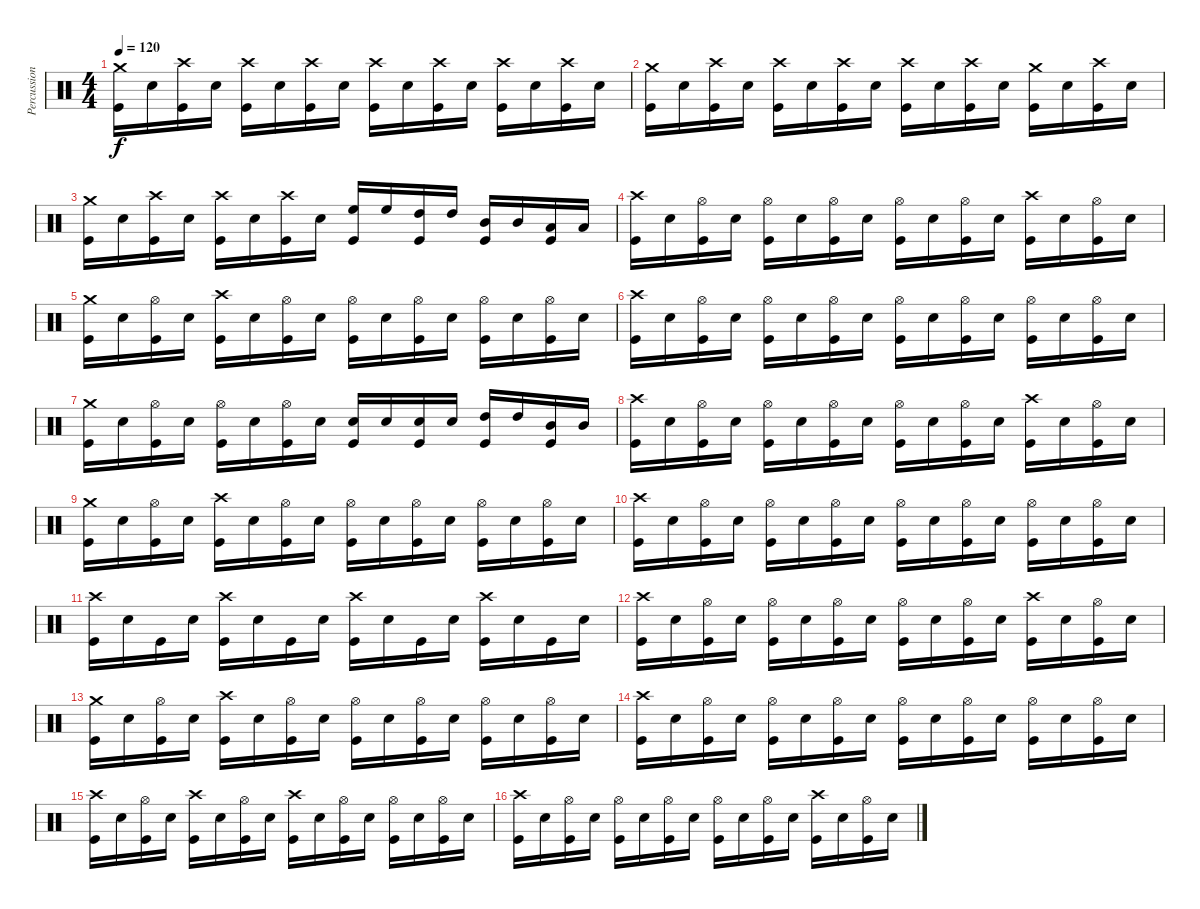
\track ("Percussioni" "Percussion") {instrument percussion}
\staff {score}
\articulation defaults
\ts (4 4)
\tempo 120
\clef neutral
\ks c
("Crash medium (hit)" "Kick (hit)").16{dy f} "Electric Snare (hit)".16 ("Crash high (hit)" "Kick (hit)").16 "Electric Snare (hit)".16 ("Crash high (hit)" "Kick (hit)").16 "Electric Snare (hit)".16 ("Crash high (hit)" "Kick (hit)").16 "Electric Snare (hit)".16 ("Crash high (hit)" "Kick (hit)").16 "Electric Snare (hit)".16 ("Crash high (hit)" "Kick (hit)").16 "Electric Snare (hit)".16 ("Crash high (hit)" "Kick (hit)").16 "Electric Snare (hit)".16 ("Crash high (hit)" "Kick (hit)").16 "Electric Snare (hit)".16 |
("Crash medium (hit)" "Kick (hit)").16 "Electric Snare (hit)".16 ("Crash high (hit)" "Kick (hit)").16 "Electric Snare (hit)".16 ("Crash high (hit)" "Kick (hit)").16 "Electric Snare (hit)".16 ("Crash high (hit)" "Kick (hit)").16 "Electric Snare (hit)".16 ("Crash high (hit)" "Kick (hit)").16 "Electric Snare (hit)".16 ("Crash high (hit)" "Kick (hit)").16 "Electric Snare (hit)".16 ("Crash medium (hit)" "Kick (hit)").16 "Electric Snare (hit)".16 ("Crash high (hit)" "Kick (hit)").16 "Electric Snare (hit)".16 |
("Crash medium (hit)" "Kick (hit)").16 "Electric Snare (hit)".16 ("Crash high (hit)" "Kick (hit)").16 "Electric Snare (hit)".16 ("Crash high (hit)" "Kick (hit)").16 "Electric Snare (hit)".16 ("Crash high (hit)" "Kick (hit)").16 "Electric Snare (hit)".16 ("High Floor Tom (hit)" "Kick (hit)").16 "High Floor Tom (hit)".16 ("High Tom (hit)" "Kick (hit)").16 "High Tom (hit)".16 ("Mid Tom (hit)" "Kick (hit)").16 "Mid Tom (hit)".16 ("Low Tom (hit)" "Kick (hit)").16 "Low Tom (hit)".16 |
("Crash high (hit)" "Kick (hit)").16 "Electric Snare (hit)".16 ("Hi-Hat (open)" "Kick (hit)").16 "Electric Snare (hit)".16 ("Hi-Hat (open)" "Kick (hit)").16 "Electric Snare (hit)".16 ("Hi-Hat (open)" "Kick (hit)").16 "Electric Snare (hit)".16 ("Hi-Hat (open)" "Kick (hit)").16 "Electric Snare (hit)".16 ("Hi-Hat (open)" "Kick (hit)").16 "Electric Snare (hit)".16 ("Crash high (hit)" "Kick (hit)").16 "Electric Snare (hit)".16 ("Hi-Hat (open)" "Kick (hit)").16 "Electric Snare (hit)".16 |
("Crash medium (hit)" "Kick (hit)").16 "Electric Snare (hit)".16 ("Hi-Hat (open)" "Kick (hit)").16 "Electric Snare (hit)".16 ("Crash high (hit)" "Kick (hit)").16 "Electric Snare (hit)".16 ("Hi-Hat (open)" "Kick (hit)").16 "Electric Snare (hit)".16 ("Hi-Hat (open)" "Kick (hit)").16 "Electric Snare (hit)".16 ("Hi-Hat (open)" "Kick (hit)").16 "Electric Snare (hit)".16 ("Hi-Hat (open)" "Kick (hit)").16 "Electric Snare (hit)".16 ("Hi-Hat (open)" "Kick (hit)").16 "Electric Snare (hit)".16 |
("Crash high (hit)" "Kick (hit)").16 "Electric Snare (hit)".16 ("Hi-Hat (open)" "Kick (hit)").16 "Electric Snare (hit)".16 ("Hi-Hat (open)" "Kick (hit)").16 "Electric Snare (hit)".16 ("Hi-Hat (open)" "Kick (hit)").16 "Electric Snare (hit)".16 ("Hi-Hat (open)" "Kick (hit)").16 "Electric Snare (hit)".16 ("Hi-Hat (open)" "Kick (hit)").16 "Electric Snare (hit)".16 ("Hi-Hat (open)" "Kick (hit)").16 "Electric Snare (hit)".16 ("Hi-Hat (open)" "Kick (hit)").16 "Electric Snare (hit)".16 |
("Crash medium (hit)" "Kick (hit)").16 "Electric Snare (hit)".16 ("Hi-Hat (open)" "Kick (hit)").16 "Electric Snare (hit)".16 ("Hi-Hat (open)" "Kick (hit)").16 "Electric Snare (hit)".16 ("Hi-Hat (open)" "Kick (hit)").16 "Electric Snare (hit)".16 ("Electric Snare (hit)" "Kick (hit)").16 "Electric Snare (hit)".16 ("Electric Snare (hit)" "Kick (hit)").16 "Electric Snare (hit)".16 ("High Tom (hit)" "Kick (hit)").16 "High Tom (hit)".16 ("Mid Tom (hit)" "Kick (hit)").16 "Mid Tom (hit)".16 |
("Crash high (hit)" "Kick (hit)").16 "Electric Snare (hit)".16 ("Hi-Hat (open)" "Kick (hit)").16 "Electric Snare (hit)".16 ("Hi-Hat (open)" "Kick (hit)").16 "Electric Snare (hit)".16 ("Hi-Hat (open)" "Kick (hit)").16 "Electric Snare (hit)".16 ("Hi-Hat (open)" "Kick (hit)").16 "Electric Snare (hit)".16 ("Hi-Hat (open)" "Kick (hit)").16 "Electric Snare (hit)".16 ("Crash high (hit)" "Kick (hit)").16 "Electric Snare (hit)".16 ("Hi-Hat (open)" "Kick (hit)").16 "Electric Snare (hit)".16 |
("Crash medium (hit)" "Kick (hit)").16 "Electric Snare (hit)".16 ("Hi-Hat (open)" "Kick (hit)").16 "Electric Snare (hit)".16 ("Crash high (hit)" "Kick (hit)").16 "Electric Snare (hit)".16 ("Hi-Hat (open)" "Kick (hit)").16 "Electric Snare (hit)".16 ("Hi-Hat (open)" "Kick (hit)").16 "Electric Snare (hit)".16 ("Hi-Hat (open)" "Kick (hit)").16 "Electric Snare (hit)".16 ("Hi-Hat (open)" "Kick (hit)").16 "Electric Snare (hit)".16 ("Hi-Hat (open)" "Kick (hit)").16 "Electric Snare (hit)".16 |
("Crash high (hit)" "Kick (hit)").16 "Electric Snare (hit)".16 ("Hi-Hat (open)" "Kick (hit)").16 "Electric Snare (hit)".16 ("Hi-Hat (open)" "Kick (hit)").16 "Electric Snare (hit)".16 ("Hi-Hat (open)" "Kick (hit)").16 "Electric Snare (hit)".16 ("Hi-Hat (open)" "Kick (hit)").16 "Electric Snare (hit)".16 ("Hi-Hat (open)" "Kick (hit)").16 "Electric Snare (hit)".16 ("Hi-Hat (open)" "Kick (hit)").16 "Electric Snare (hit)".16 ("Hi-Hat (open)" "Kick (hit)").16 "Electric Snare (hit)".16 |
("Crash high (hit)" "Kick (hit)").16 "Electric Snare (hit)".16 "Kick (hit)".16 "Electric Snare (hit)".16 ("Crash high (hit)" "Kick (hit)").16 "Electric Snare (hit)".16 "Kick (hit)".16 "Electric Snare (hit)".16 ("Crash high (hit)" "Kick (hit)").16 "Electric Snare (hit)".16 "Kick (hit)".16 "Electric Snare (hit)".16 ("Crash high (hit)" "Kick (hit)").16 "Electric Snare (hit)".16 "Kick (hit)".16 "Electric Snare (hit)".16 |
("Crash high (hit)" "Kick (hit)").16 "Electric Snare (hit)".16 ("Hi-Hat (open)" "Kick (hit)").16 "Electric Snare (hit)".16 ("Hi-Hat (open)" "Kick (hit)").16 "Electric Snare (hit)".16 ("Hi-Hat (open)" "Kick (hit)").16 "Electric Snare (hit)".16 ("Hi-Hat (open)" "Kick (hit)").16 "Electric Snare (hit)".16 ("Hi-Hat (open)" "Kick (hit)").16 "Electric Snare (hit)".16 ("Crash high (hit)" "Kick (hit)").16 "Electric Snare (hit)".16 ("Hi-Hat (open)" "Kick (hit)").16 "Electric Snare (hit)".16 |
("Crash medium (hit)" "Kick (hit)").16 "Electric Snare (hit)".16 ("Hi-Hat (open)" "Kick (hit)").16 "Electric Snare (hit)".16 ("Crash high (hit)" "Kick (hit)").16 "Electric Snare (hit)".16 ("Hi-Hat (open)" "Kick (hit)").16 "Electric Snare (hit)".16 ("Hi-Hat (open)" "Kick (hit)").16 "Electric Snare (hit)".16 ("Hi-Hat (open)" "Kick (hit)").16 "Electric Snare (hit)".16 ("Hi-Hat (open)" "Kick (hit)").16 "Electric Snare (hit)".16 ("Hi-Hat (open)" "Kick (hit)").16 "Electric Snare (hit)".16 |
("Crash high (hit)" "Kick (hit)").16 "Electric Snare (hit)".16 ("Hi-Hat (open)" "Kick (hit)").16 "Electric Snare (hit)".16 ("Hi-Hat (open)" "Kick (hit)").16 "Electric Snare (hit)".16 ("Hi-Hat (open)" "Kick (hit)").16 "Electric Snare (hit)".16 ("Hi-Hat (open)" "Kick (hit)").16 "Electric Snare (hit)".16 ("Hi-Hat (open)" "Kick (hit)").16 "Electric Snare (hit)".16 ("Hi-Hat (open)" "Kick (hit)").16 "Electric Snare (hit)".16 ("Hi-Hat (open)" "Kick (hit)").16 "Electric Snare (hit)".16 |
("Crash high (hit)" "Kick (hit)").16 "Electric Snare (hit)".16 ("Hi-Hat (open)" "Kick (hit)").16 "Electric Snare (hit)".16 ("Crash high (hit)" "Kick (hit)").16 "Electric Snare (hit)".16 ("Hi-Hat (open)" "Kick (hit)").16 "Electric Snare (hit)".16 ("Crash high (hit)" "Kick (hit)").16 "Electric Snare (hit)".16 ("Hi-Hat (open)" "Kick (hit)").16 "Electric Snare (hit)".16 ("Hi-Hat (open)" "Kick (hit)").16 "Electric Snare (hit)".16 ("Hi-Hat (open)" "Kick (hit)").16 "Electric Snare (hit)".16 |
("Crash high (hit)" "Kick (hit)").16 "Electric Snare (hit)".16 ("Hi-Hat (open)" "Kick (hit)").16 "Electric Snare (hit)".16 ("Hi-Hat (open)" "Kick (hit)").16 "Electric Snare (hit)".16 ("Hi-Hat (open)" "Kick (hit)").16 "Electric Snare (hit)".16 ("Hi-Hat (open)" "Kick (hit)").16 "Electric Snare (hit)".16 ("Hi-Hat (open)" "Kick (hit)").16 "Electric Snare (hit)".16 ("Crash high (hit)" "Kick (hit)").16 "Electric Snare (hit)".16 ("Hi-Hat (open)" "Kick (hit)").16 "Electric Snare (hit)".16
